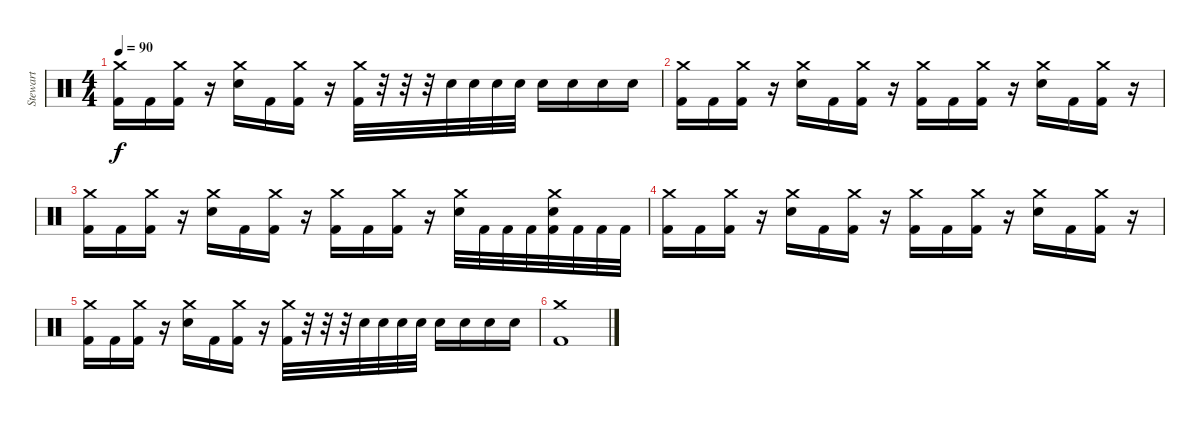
\track ("Stewart" "Stewart") {instrument percussion}
\staff {score}
\articulation defaults
\ts (4 4)
\tempo 90
\clef neutral
\ks c
("Crash medium (hit)" "Kick (hit) 2").16{dy f} "Kick (hit) 2".16 ("Crash medium (hit)" "Kick (hit) 2").16 r.16 ("Crash medium (hit)" "Snare (hit) 2").16 "Kick (hit) 2".16 ("Crash medium (hit)" "Kick (hit) 2").16 r.16 ("Crash medium (hit)" "Kick (hit) 2").32 r.32 r.32 r.32 "Snare (hit) 2".32 "Snare (hit) 2".32 "Snare (hit) 2".32 "Snare (hit) 2".32 "Snare (hit) 2".16 "Snare (hit) 2".16 "Snare (hit) 2".16 "Snare (hit) 2".16 |
("Crash medium (hit)" "Kick (hit) 2").16 "Kick (hit) 2".16 ("Crash medium (hit)" "Kick (hit) 2").16 r.16 ("Crash medium (hit)" "Snare (hit) 2").16 "Kick (hit) 2".16 ("Crash medium (hit)" "Kick (hit) 2").16 r.16 ("Crash medium (hit)" "Kick (hit) 2").16 "Kick (hit) 2".16 ("Crash medium (hit)" "Kick (hit) 2").16 r.16 ("Crash medium (hit)" "Snare (hit) 2").16 "Kick (hit) 2".16 ("Crash medium (hit)" "Kick (hit) 2").16 r.16 |
("Crash medium (hit)" "Kick (hit) 2").16 "Kick (hit) 2".16 ("Crash medium (hit)" "Kick (hit) 2").16 r.16 ("Crash medium (hit)" "Snare (hit) 2").16 "Kick (hit) 2".16 ("Crash medium (hit)" "Kick (hit) 2").16 r.16 ("Crash medium (hit)" "Kick (hit) 2").16 "Kick (hit) 2".16 ("Crash medium (hit)" "Kick (hit) 2").16 r.16 ("Crash medium (hit)" "Snare (hit) 2").32 "Kick (hit) 2".32 "Kick (hit) 2".32 "Kick (hit) 2".32 ("Crash medium (hit)" "Snare (hit) 2" "Kick (hit) 2").32 "Kick (hit) 2".32 "Kick (hit) 2".32 "Kick (hit) 2".32 |
("Crash medium (hit)" "Kick (hit) 2").16 "Kick (hit) 2".16 ("Crash medium (hit)" "Kick (hit) 2").16 r.16 ("Crash medium (hit)" "Snare (hit) 2").16 "Kick (hit) 2".16 ("Crash medium (hit)" "Kick (hit) 2").16 r.16 ("Crash medium (hit)" "Kick (hit) 2").16 "Kick (hit) 2".16 ("Crash medium (hit)" "Kick (hit) 2").16 r.16 ("Crash medium (hit)" "Snare (hit) 2").16 "Kick (hit) 2".16 ("Crash medium (hit)" "Kick (hit) 2").16 r.16 |
("Crash medium (hit)" "Kick (hit) 2").16 "Kick (hit) 2".16 ("Crash medium (hit)" "Kick (hit) 2").16 r.16 ("Crash medium (hit)" "Snare (hit) 2").16 "Kick (hit) 2".16 ("Crash medium (hit)" "Kick (hit) 2").16 r.16 ("Crash medium (hit)" "Kick (hit) 2").32 r.32 r.32 r.32 "Snare (hit) 2".32 "Snare (hit) 2".32 "Snare (hit) 2".32 "Snare (hit) 2".32 "Snare (hit) 2".16 "Snare (hit) 2".16 "Snare (hit) 2".16 "Snare (hit) 2".16 |
("Crash medium (hit)" "Kick (hit) 2").1
